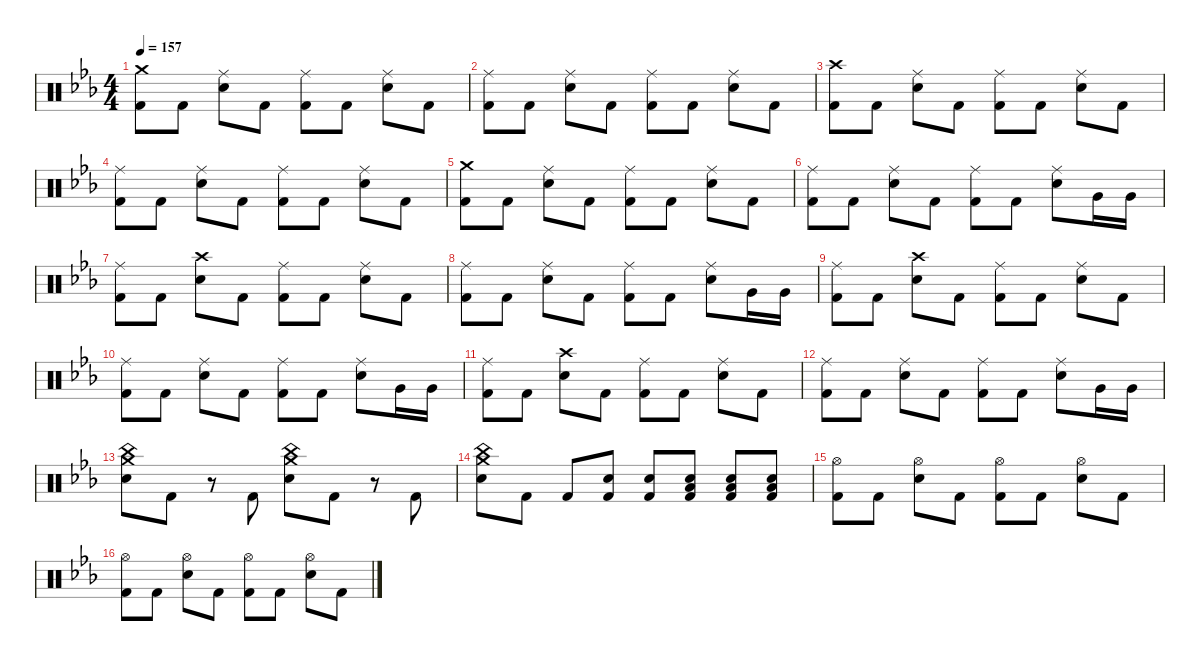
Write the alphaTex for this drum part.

\defaultSystemsLayout 4
\hideDynamics
\bracketExtendMode nobrackets
\singleTrackTrackNamePolicy hidden
\multiTrackTrackNamePolicy hidden
\firstSystemTrackNameMode fullname
\firstSystemTrackNameOrientation horizontal
\otherSystemsTrackNameOrientation horizontal
\track ("Drums" "drm.") {instrument percussion}
\staff {score}
\articulation defaults
\ts (4 4)
\tempo 157
\clef neutral
\ks cminor
("Crash medium (hit)"{acc forcenatural} "Kick (hit) 2"{acc forcenatural}).8{dy f beam Down} "Kick (hit) 2"{acc forcenatural}.8{beam Down} ("Ride (middle)"{acc forcenatural} "Snare (hit) 2"{acc forcenatural}).8{beam Down} "Kick (hit) 2"{acc forcenatural}.8{beam Down} ("Ride (middle)"{acc forcenatural} "Kick (hit) 2"{acc forcenatural}).8{beam Down} "Kick (hit) 2"{acc forcenatural}.8{beam Down} ("Ride (middle)"{acc forcenatural} "Snare (hit) 2"{acc forcenatural}).8{beam Down} "Kick (hit) 2"{acc forcenatural}.8{beam Down} |
("Ride (middle)"{acc forcenatural} "Kick (hit) 2"{acc forcenatural}).8{beam Down} "Kick (hit) 2"{acc forcenatural}.8{beam Down} ("Ride (middle)"{acc forcenatural} "Snare (hit) 2"{acc forcenatural}).8{beam Down} "Kick (hit) 2"{acc forcenatural}.8{beam Down} ("Ride (middle)"{acc forcenatural} "Kick (hit) 2"{acc forcenatural}).8{beam Down} "Kick (hit) 2"{acc forcenatural}.8{beam Down} ("Ride (middle)"{acc forcenatural} "Snare (hit) 2"{acc forcenatural}).8{beam Down} "Kick (hit) 2"{acc forcenatural}.8{beam Down} |
("Crash high (hit)"{acc forcenatural} "Kick (hit) 2"{acc forcenatural}).8{beam Down} "Kick (hit) 2"{acc forcenatural}.8{beam Down} ("Ride (middle)"{acc forcenatural} "Snare (hit) 2"{acc forcenatural}).8{beam Down} "Kick (hit) 2"{acc forcenatural}.8{beam Down} ("Ride (middle)"{acc forcenatural} "Kick (hit) 2"{acc forcenatural}).8{beam Down} "Kick (hit) 2"{acc forcenatural}.8{beam Down} ("Ride (middle)"{acc forcenatural} "Snare (hit) 2"{acc forcenatural}).8{beam Down} "Kick (hit) 2"{acc forcenatural}.8{beam Down} |
("Ride (middle)"{acc forcenatural} "Kick (hit) 2"{acc forcenatural}).8{beam Down} "Kick (hit) 2"{acc forcenatural}.8{beam Down} ("Ride (middle)"{acc forcenatural} "Snare (hit) 2"{acc forcenatural}).8{beam Down} "Kick (hit) 2"{acc forcenatural}.8{beam Down} ("Ride (middle)"{acc forcenatural} "Kick (hit) 2"{acc forcenatural}).8{beam Down} "Kick (hit) 2"{acc forcenatural}.8{beam Down} ("Ride (middle)"{acc forcenatural} "Snare (hit) 2"{acc forcenatural}).8{beam Down} "Kick (hit) 2"{acc forcenatural}.8{beam Down} |
("Crash medium (hit)"{acc forcenatural} "Kick (hit) 2"{acc forcenatural}).8{beam Down} "Kick (hit) 2"{acc forcenatural}.8{beam Down} ("Ride (middle)"{acc forcenatural} "Snare (hit) 2"{acc forcenatural}).8{beam Down} "Kick (hit) 2"{acc forcenatural}.8{beam Down} ("Ride (middle)"{acc forcenatural} "Kick (hit) 2"{acc forcenatural}).8{beam Down} "Kick (hit) 2"{acc forcenatural}.8{beam Down} ("Ride (middle)"{acc forcenatural} "Snare (hit) 2"{acc forcenatural}).8{beam Down} "Kick (hit) 2"{acc forcenatural}.8{beam Down} |
("Ride (middle)"{acc forcenatural} "Kick (hit) 2"{acc forcenatural}).8{beam Down} "Kick (hit) 2"{acc forcenatural}.8{beam Down} ("Ride (middle)"{acc forcenatural} "Snare (hit) 2"{acc forcenatural}).8{beam Down} "Kick (hit) 2"{acc forcenatural}.8{beam Down} ("Ride (middle)"{acc forcenatural} "Kick (hit) 2"{acc forcenatural}).8{beam Down} "Kick (hit) 2"{acc forcenatural}.8{beam Down} ("Ride (middle)"{acc forcenatural} "Snare (hit) 2"{acc forcenatural}).8{beam Down} "Very Low Tom (hit)"{acc forcenatural}.16{dy fff beam Down} "Very Low Tom (hit)"{acc forcenatural}.16{beam Down} |
("Ride (middle)"{acc forcenatural} "Kick (hit) 2"{acc forcenatural}).8{dy f beam Down} "Kick (hit) 2"{acc forcenatural}.8{beam Down} ("Crash high (hit)"{acc forcenatural} "Snare (hit) 2"{acc forcenatural}).8{beam Down} "Kick (hit) 2"{acc forcenatural}.8{beam Down} ("Ride (middle)"{acc forcenatural} "Kick (hit) 2"{acc forcenatural}).8{beam Down} "Kick (hit) 2"{acc forcenatural}.8{beam Down} ("Ride (middle)"{acc forcenatural} "Snare (hit) 2"{acc forcenatural}).8{beam Down} "Kick (hit) 2"{acc forcenatural}.8{beam Down} |
("Ride (middle)"{acc forcenatural} "Kick (hit) 2"{acc forcenatural}).8{beam Down} "Kick (hit) 2"{acc forcenatural}.8{beam Down} ("Ride (middle)"{acc forcenatural} "Snare (hit) 2"{acc forcenatural}).8{beam Down} "Kick (hit) 2"{acc forcenatural}.8{beam Down} ("Ride (middle)"{acc forcenatural} "Kick (hit) 2"{acc forcenatural}).8{beam Down} "Kick (hit) 2"{acc forcenatural}.8{beam Down} ("Ride (middle)"{acc forcenatural} "Snare (hit) 2"{acc forcenatural}).8{beam Down} "Very Low Tom (hit)"{acc forcenatural}.16{dy fff beam Down} "Very Low Tom (hit)"{acc forcenatural}.16{beam Down} |
("Ride (middle)"{acc forcenatural} "Kick (hit) 2"{acc forcenatural}).8{dy f beam Down} "Kick (hit) 2"{acc forcenatural}.8{beam Down} ("Crash high (hit)"{acc forcenatural} "Snare (hit) 2"{acc forcenatural}).8{beam Down} "Kick (hit) 2"{acc forcenatural}.8{beam Down} ("Ride (middle)"{acc forcenatural} "Kick (hit) 2"{acc forcenatural}).8{beam Down} "Kick (hit) 2"{acc forcenatural}.8{beam Down} ("Ride (middle)"{acc forcenatural} "Snare (hit) 2"{acc forcenatural}).8{beam Down} "Kick (hit) 2"{acc forcenatural}.8{beam Down} |
("Ride (middle)"{acc forcenatural} "Kick (hit) 2"{acc forcenatural}).8{beam Down} "Kick (hit) 2"{acc forcenatural}.8{beam Down} ("Ride (middle)"{acc forcenatural} "Snare (hit) 2"{acc forcenatural}).8{beam Down} "Kick (hit) 2"{acc forcenatural}.8{beam Down} ("Ride (middle)"{acc forcenatural} "Kick (hit) 2"{acc forcenatural}).8{beam Down} "Kick (hit) 2"{acc forcenatural}.8{beam Down} ("Ride (middle)"{acc forcenatural} "Snare (hit) 2"{acc forcenatural}).8{beam Down} "Very Low Tom (hit)"{acc forcenatural}.16{dy fff beam Down} "Very Low Tom (hit)"{acc forcenatural}.16{beam Down} |
("Ride (middle)"{acc forcenatural} "Kick (hit) 2"{acc forcenatural}).8{dy f beam Down} "Kick (hit) 2"{acc forcenatural}.8{beam Down} ("Crash high (hit)"{acc forcenatural} "Snare (hit) 2"{acc forcenatural}).8{beam Down} "Kick (hit) 2"{acc forcenatural}.8{beam Down} ("Ride (middle)"{acc forcenatural} "Kick (hit) 2"{acc forcenatural}).8{beam Down} "Kick (hit) 2"{acc forcenatural}.8{beam Down} ("Ride (middle)"{acc forcenatural} "Snare (hit) 2"{acc forcenatural}).8{beam Down} "Kick (hit) 2"{acc forcenatural}.8{beam Down} |
("Ride (middle)"{acc forcenatural} "Kick (hit) 2"{acc forcenatural}).8{beam Down} "Kick (hit) 2"{acc forcenatural}.8{beam Down} ("Ride (middle)"{acc forcenatural} "Snare (hit) 2"{acc forcenatural}).8{beam Down} "Kick (hit) 2"{acc forcenatural}.8{beam Down} ("Ride (middle)"{acc forcenatural} "Kick (hit) 2"{acc forcenatural}).8{beam Down} "Kick (hit) 2"{acc forcenatural}.8{beam Down} ("Ride (middle)"{acc forcenatural} "Snare (hit) 2"{acc forcenatural}).8{beam Down} "Very Low Tom (hit)"{acc forcenatural}.16{dy fff beam Down} "Very Low Tom (hit)"{acc forcenatural}.16{beam Down} |
("China (hit)"{acc forcenatural} "Crash medium (hit)"{acc forcenatural} "Snare (hit) 2"{acc forcenatural}).8{dy mp beam Down} "Kick (hit) 2"{acc forcenatural}.8{dy f beam Down} r.8{beam Down} "Kick (hit) 2"{acc forcenatural}.8{beam Up} ("China (hit)"{acc forcenatural} "Crash medium (hit)"{acc forcenatural} "Snare (hit) 2"{acc forcenatural}).8{dy mp beam Down} "Kick (hit) 2"{acc forcenatural}.8{dy f beam Down} r.8{beam Down} "Kick (hit) 2"{acc forcenatural}.8{beam Up} |
("China (hit)"{acc forcenatural} "Crash medium (hit)"{acc forcenatural} "Snare (hit) 2"{acc forcenatural}).8{dy mp beam Down} "Kick (hit) 2"{acc forcenatural}.8{dy f beam Down} "Kick (hit) 2"{acc forcenatural}.8{beam Up} ("Snare (hit) 2"{acc forcenatural} "Kick (hit) 2"{acc forcenatural}).8{dy pp beam Up} ("Snare (hit) 2"{acc forcenatural} "Kick (hit) 2"{acc forcenatural}).8{dy p beam Up} ("Snare (hit) 2"{acc forcenatural} "Low Floor Tom (hit)"{acc forcenatural} "Kick (hit) 2"{acc forcenatural}).8{dy mp beam Up} ("Snare (hit) 2"{acc forcenatural} "Low Floor Tom (hit)"{acc forcenatural} "Kick (hit) 2"{acc forcenatural}).8{dy mf beam Up} ("Snare (hit) 2"{acc forcenatural} "Low Floor Tom (hit)"{acc forcenatural} "Kick (hit) 2"{acc forcenatural}).8{dy f beam Up} |
("Hi-Hat (open)"{acc forcenatural} "Kick (hit) 2"{acc forcenatural}).8{beam Down} "Kick (hit) 2"{acc forcenatural}.8{beam Down} ("Hi-Hat (open)"{acc forcenatural} "Snare (hit) 2"{acc forcenatural}).8{beam Down} "Kick (hit) 2"{acc forcenatural}.8{beam Down} ("Hi-Hat (open)"{acc forcenatural} "Kick (hit) 2"{acc forcenatural}).8{beam Down} "Kick (hit) 2"{acc forcenatural}.8{beam Down} ("Hi-Hat (open)"{acc forcenatural} "Snare (hit) 2"{acc forcenatural}).8{beam Down} "Kick (hit) 2"{acc forcenatural}.8{beam Down} |
("Hi-Hat (open)"{acc forcenatural} "Kick (hit) 2"{acc forcenatural}).8{beam Down} "Kick (hit) 2"{acc forcenatural}.8{beam Down} ("Hi-Hat (open)"{acc forcenatural} "Snare (hit) 2"{acc forcenatural}).8{beam Down} "Kick (hit) 2"{acc forcenatural}.8{beam Down} ("Hi-Hat (open)"{acc forcenatural} "Kick (hit) 2"{acc forcenatural}).8{beam Down} "Kick (hit) 2"{acc forcenatural}.8{beam Down} ("Hi-Hat (open)"{acc forcenatural} "Snare (hit) 2"{acc forcenatural}).8{beam Down} "Kick (hit) 2"{acc forcenatural}.8{beam Down}
